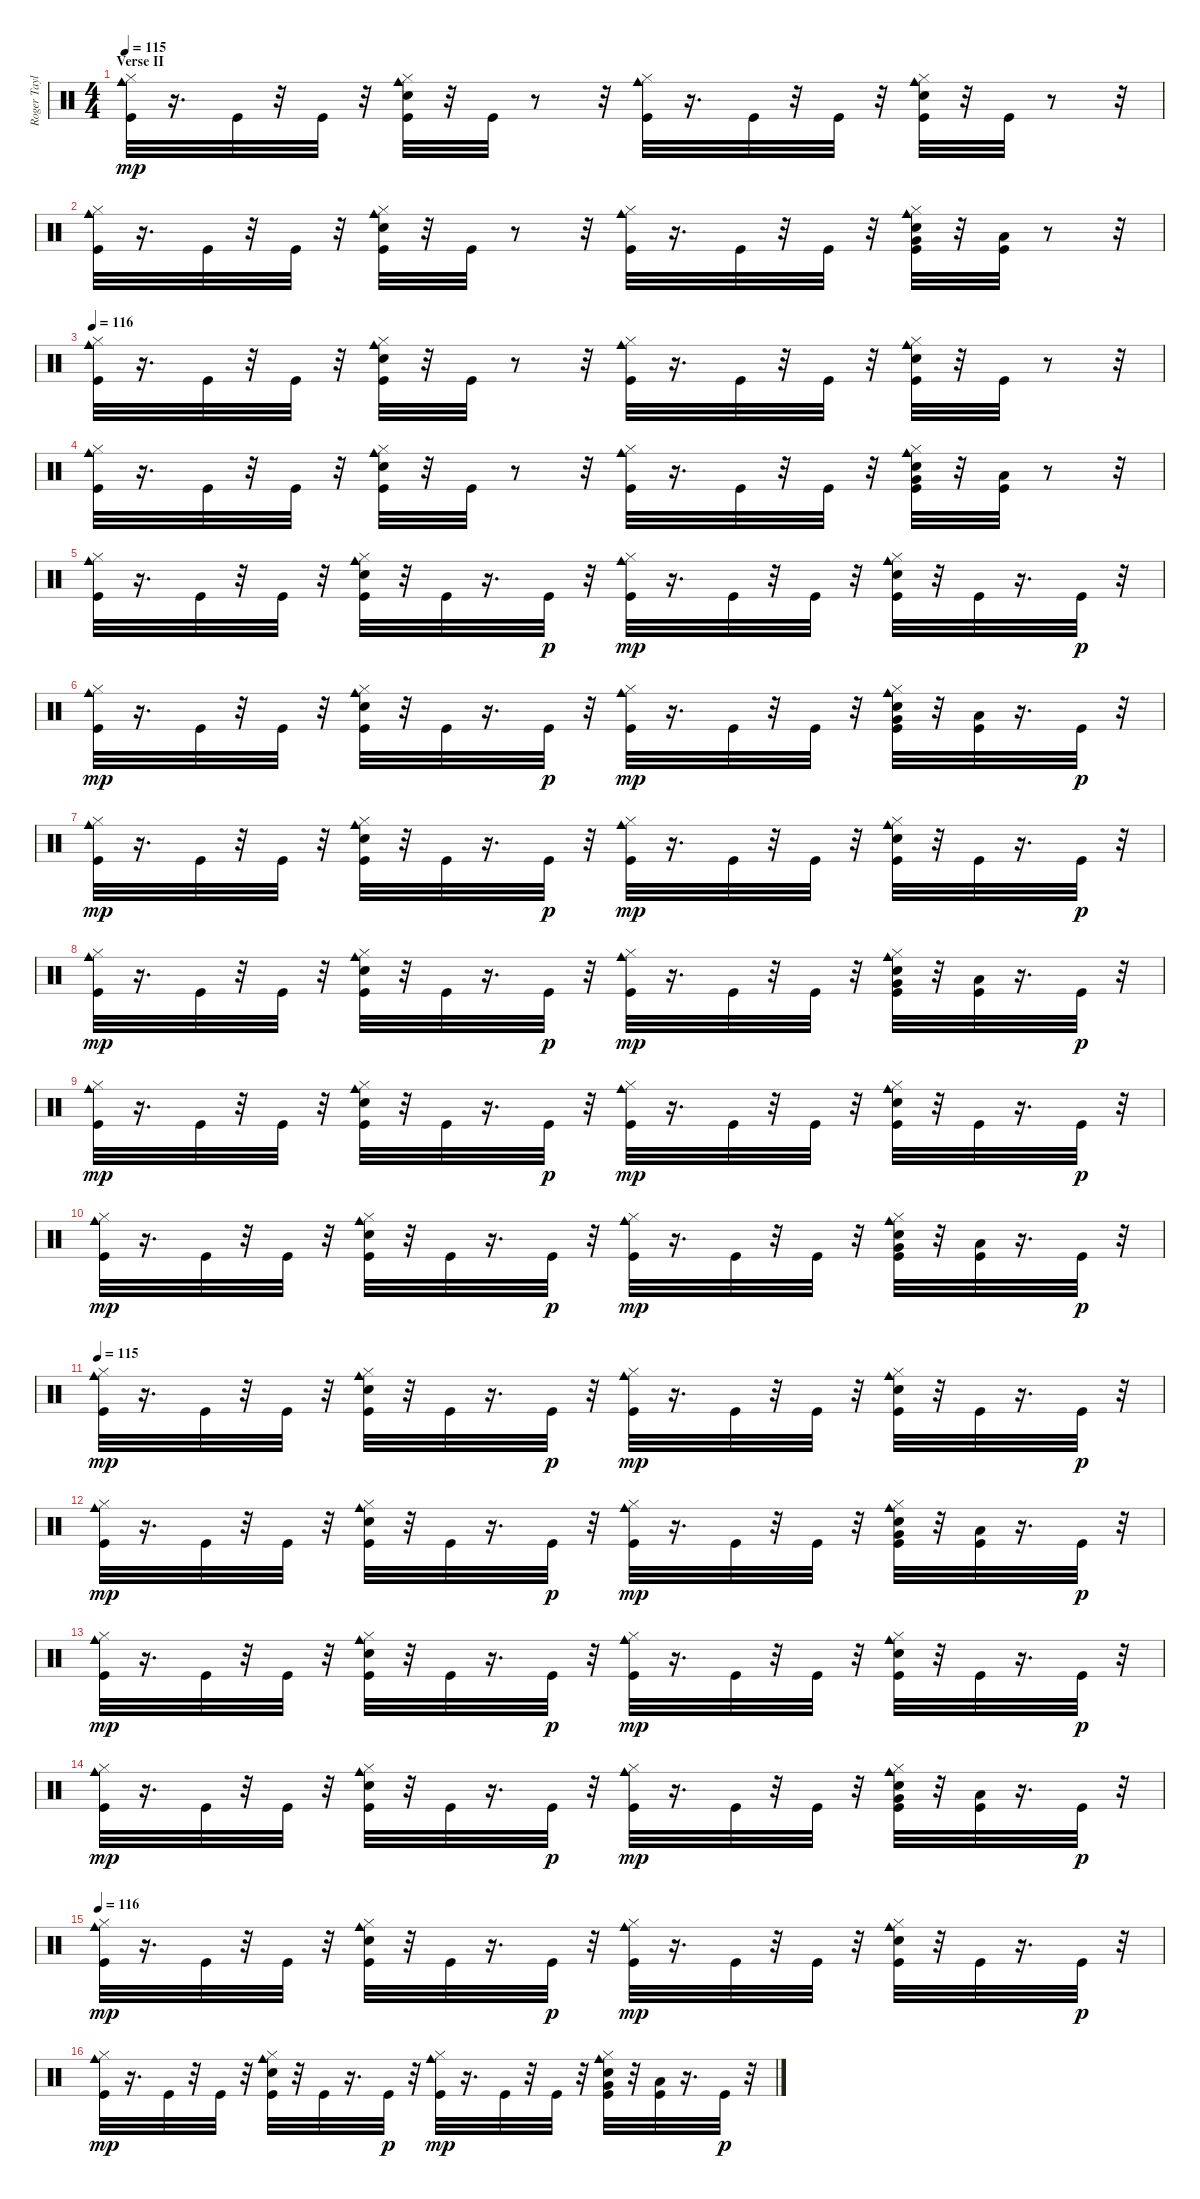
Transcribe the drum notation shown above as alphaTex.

\track ("Roger Taylor" "Roger Tayl") {instrument percussion}
\staff {score}
\articulation defaults
\ts (4 4)
\section ("" "Verse II")
\tempo 115
\clef neutral
\ks c
("Cowbell medium (hit)" "Hi-Hat (closed)" "Kick (hit)").32{dy mp} r.16{d} "Kick (hit)".32 r.32 "Kick (hit)".32 r.32 ("Hand Clap (hit)" "Cowbell medium (hit)" "Hi-Hat (closed)" "Kick (hit)").32 r.32 "Kick (hit)".32 r.8 r.32 ("Cowbell medium (hit)" "Hi-Hat (closed)" "Kick (hit)").32 r.16{d} "Kick (hit)".32 r.32 "Kick (hit)".32 r.32 ("Hand Clap (hit)" "Cowbell medium (hit)" "Hi-Hat (closed)" "Kick (hit)").32 r.32 "Kick (hit)".32 r.8 r.32 |
("Cowbell medium (hit)" "Hi-Hat (closed)" "Kick (hit)").32 r.16{d} "Kick (hit)".32 r.32 "Kick (hit)".32 r.32 ("Snare (hit)" "Cowbell medium (hit)" "Hi-Hat (closed)" "Kick (hit)").32 r.32 "Kick (hit)".32 r.8 r.32 ("Cowbell medium (hit)" "Hi-Hat (closed)" "Kick (hit)").32 r.16{d} "Kick (hit)".32 r.32 "Kick (hit)".32 r.32 ("Very Low Tom (hit)" "Snare (hit)" "Cowbell medium (hit)" "Hi-Hat (closed)" "Kick (hit)").32 r.32 ("Low Floor Tom (hit)" "Kick (hit)").32 r.8 r.32 |
\tempo 116
("Cowbell medium (hit)" "Hi-Hat (closed)" "Kick (hit)").32 r.16{d} "Kick (hit)".32 r.32 "Kick (hit)".32 r.32 ("Hand Clap (hit)" "Cowbell medium (hit)" "Hi-Hat (closed)" "Kick (hit)").32 r.32 "Kick (hit)".32 r.8 r.32 ("Cowbell medium (hit)" "Hi-Hat (closed)" "Kick (hit)").32 r.16{d} "Kick (hit)".32 r.32 "Kick (hit)".32 r.32 ("Hand Clap (hit)" "Cowbell medium (hit)" "Hi-Hat (closed)" "Kick (hit)").32 r.32 "Kick (hit)".32 r.8 r.32 |
("Cowbell medium (hit)" "Hi-Hat (closed)" "Kick (hit)").32 r.16{d} "Kick (hit)".32 r.32 "Kick (hit)".32 r.32 ("Snare (hit)" "Cowbell medium (hit)" "Hi-Hat (closed)" "Kick (hit)").32 r.32 "Kick (hit)".32 r.8 r.32 ("Cowbell medium (hit)" "Hi-Hat (closed)" "Kick (hit)").32 r.16{d} "Kick (hit)".32 r.32 "Kick (hit)".32 r.32 ("Very Low Tom (hit)" "Snare (hit)" "Cowbell medium (hit)" "Hi-Hat (closed)" "Kick (hit)").32 r.32 ("Low Floor Tom (hit)" "Kick (hit)").32 r.8 r.32 |
("Cowbell medium (hit)" "Hi-Hat (closed)" "Kick (hit)").32 r.16{d} "Kick (hit)".32 r.32 "Kick (hit)".32 r.32 ("Snare (hit)" "Cowbell medium (hit)" "Hi-Hat (closed)" "Kick (hit)").32 r.32 "Kick (hit)".32 r.16{d} "Kick (hit)".32{dy p} r.32 ("Cowbell medium (hit)" "Hi-Hat (closed)" "Kick (hit)").32{dy mp} r.16{d} "Kick (hit)".32 r.32 "Kick (hit)".32 r.32 ("Hand Clap (hit)" "Cowbell medium (hit)" "Hi-Hat (closed)" "Kick (hit)").32 r.32 "Kick (hit)".32 r.16{d} "Kick (hit)".32{dy p} r.32 |
("Cowbell medium (hit)" "Hi-Hat (closed)" "Kick (hit)").32{dy mp} r.16{d} "Kick (hit)".32 r.32 "Kick (hit)".32 r.32 ("Snare (hit)" "Cowbell medium (hit)" "Hi-Hat (closed)" "Kick (hit)").32 r.32 "Kick (hit)".32 r.16{d} "Kick (hit)".32{dy p} r.32 ("Cowbell medium (hit)" "Hi-Hat (closed)" "Kick (hit)").32{dy mp} r.16{d} "Kick (hit)".32 r.32 "Kick (hit)".32 r.32 ("Hand Clap (hit)" "Very Low Tom (hit)" "Cowbell medium (hit)" "Hi-Hat (closed)" "Kick (hit)").32 r.32 ("Low Floor Tom (hit)" "Kick (hit)").32 r.16{d} "Kick (hit)".32{dy p} r.32 |
("Cowbell medium (hit)" "Hi-Hat (closed)" "Kick (hit)").32{dy mp} r.16{d} "Kick (hit)".32 r.32 "Kick (hit)".32 r.32 ("Snare (hit)" "Cowbell medium (hit)" "Hi-Hat (closed)" "Kick (hit)").32 r.32 "Kick (hit)".32 r.16{d} "Kick (hit)".32{dy p} r.32 ("Cowbell medium (hit)" "Hi-Hat (closed)" "Kick (hit)").32{dy mp} r.16{d} "Kick (hit)".32 r.32 "Kick (hit)".32 r.32 ("Hand Clap (hit)" "Cowbell medium (hit)" "Hi-Hat (closed)" "Kick (hit)").32 r.32 "Kick (hit)".32 r.16{d} "Kick (hit)".32{dy p} r.32 |
("Cowbell medium (hit)" "Hi-Hat (closed)" "Kick (hit)").32{dy mp} r.16{d} "Kick (hit)".32 r.32 "Kick (hit)".32 r.32 ("Snare (hit)" "Cowbell medium (hit)" "Hi-Hat (closed)" "Kick (hit)").32 r.32 "Kick (hit)".32 r.16{d} "Kick (hit)".32{dy p} r.32 ("Cowbell medium (hit)" "Hi-Hat (closed)" "Kick (hit)").32{dy mp} r.16{d} "Kick (hit)".32 r.32 "Kick (hit)".32 r.32 ("Hand Clap (hit)" "Very Low Tom (hit)" "Cowbell medium (hit)" "Hi-Hat (closed)" "Kick (hit)").32 r.32 ("Low Floor Tom (hit)" "Kick (hit)").32 r.16{d} "Kick (hit)".32{dy p} r.32 |
("Cowbell medium (hit)" "Hi-Hat (closed)" "Kick (hit)").32{dy mp} r.16{d} "Kick (hit)".32 r.32 "Kick (hit)".32 r.32 ("Snare (hit)" "Cowbell medium (hit)" "Hi-Hat (closed)" "Kick (hit)").32 r.32 "Kick (hit)".32 r.16{d} "Kick (hit)".32{dy p} r.32 ("Cowbell medium (hit)" "Hi-Hat (closed)" "Kick (hit)").32{dy mp} r.16{d} "Kick (hit)".32 r.32 "Kick (hit)".32 r.32 ("Hand Clap (hit)" "Cowbell medium (hit)" "Hi-Hat (closed)" "Kick (hit)").32 r.32 "Kick (hit)".32 r.16{d} "Kick (hit)".32{dy p} r.32 |
("Cowbell medium (hit)" "Hi-Hat (closed)" "Kick (hit)").32{dy mp} r.16{d} "Kick (hit)".32 r.32 "Kick (hit)".32 r.32 ("Snare (hit)" "Cowbell medium (hit)" "Hi-Hat (closed)" "Kick (hit)").32 r.32 "Kick (hit)".32 r.16{d} "Kick (hit)".32{dy p} r.32 ("Cowbell medium (hit)" "Hi-Hat (closed)" "Kick (hit)").32{dy mp} r.16{d} "Kick (hit)".32 r.32 "Kick (hit)".32 r.32 ("Hand Clap (hit)" "Very Low Tom (hit)" "Cowbell medium (hit)" "Hi-Hat (closed)" "Kick (hit)").32 r.32 ("Low Floor Tom (hit)" "Kick (hit)").32 r.16{d} "Kick (hit)".32{dy p} r.32 |
\tempo 115
("Cowbell medium (hit)" "Hi-Hat (closed)" "Kick (hit)").32{dy mp} r.16{d} "Kick (hit)".32 r.32 "Kick (hit)".32 r.32 ("Snare (hit)" "Cowbell medium (hit)" "Hi-Hat (closed)" "Kick (hit)").32 r.32 "Kick (hit)".32 r.16{d} "Kick (hit)".32{dy p} r.32 ("Cowbell medium (hit)" "Hi-Hat (closed)" "Kick (hit)").32{dy mp} r.16{d} "Kick (hit)".32 r.32 "Kick (hit)".32 r.32 ("Snare (hit)" "Cowbell medium (hit)" "Hi-Hat (closed)" "Kick (hit)").32 r.32 "Kick (hit)".32 r.16{d} "Kick (hit)".32{dy p} r.32 |
("Cowbell medium (hit)" "Hi-Hat (closed)" "Kick (hit)").32{dy mp} r.16{d} "Kick (hit)".32 r.32 "Kick (hit)".32 r.32 ("Snare (hit)" "Cowbell medium (hit)" "Hi-Hat (closed)" "Kick (hit)").32 r.32 "Kick (hit)".32 r.16{d} "Kick (hit)".32{dy p} r.32 ("Cowbell medium (hit)" "Hi-Hat (closed)" "Kick (hit)").32{dy mp} r.16{d} "Kick (hit)".32 r.32 "Kick (hit)".32 r.32 ("Snare (hit)" "Very Low Tom (hit)" "Cowbell medium (hit)" "Hi-Hat (closed)" "Kick (hit)").32 r.32 ("Low Floor Tom (hit)" "Kick (hit)").32 r.16{d} "Kick (hit)".32{dy p} r.32 |
("Cowbell medium (hit)" "Hi-Hat (closed)" "Kick (hit)").32{dy mp} r.16{d} "Kick (hit)".32 r.32 "Kick (hit)".32 r.32 ("Snare (hit)" "Cowbell medium (hit)" "Hi-Hat (closed)" "Kick (hit)").32 r.32 "Kick (hit)".32 r.16{d} "Kick (hit)".32{dy p} r.32 ("Cowbell medium (hit)" "Hi-Hat (closed)" "Kick (hit)").32{dy mp} r.16{d} "Kick (hit)".32 r.32 "Kick (hit)".32 r.32 ("Snare (hit)" "Cowbell medium (hit)" "Hi-Hat (closed)" "Kick (hit)").32 r.32 "Kick (hit)".32 r.16{d} "Kick (hit)".32{dy p} r.32 |
("Cowbell medium (hit)" "Hi-Hat (closed)" "Kick (hit)").32{dy mp} r.16{d} "Kick (hit)".32 r.32 "Kick (hit)".32 r.32 ("Snare (hit)" "Cowbell medium (hit)" "Hi-Hat (closed)" "Kick (hit)").32 r.32 "Kick (hit)".32 r.16{d} "Kick (hit)".32{dy p} r.32 ("Cowbell medium (hit)" "Hi-Hat (closed)" "Kick (hit)").32{dy mp} r.16{d} "Kick (hit)".32 r.32 "Kick (hit)".32 r.32 ("Snare (hit)" "Very Low Tom (hit)" "Cowbell medium (hit)" "Hi-Hat (closed)" "Kick (hit)").32 r.32 ("Low Floor Tom (hit)" "Kick (hit)").32 r.16{d} "Kick (hit)".32{dy p} r.32 |
\tempo 116
("Cowbell medium (hit)" "Hi-Hat (closed)" "Kick (hit)").32{dy mp} r.16{d} "Kick (hit)".32 r.32 "Kick (hit)".32 r.32 ("Snare (hit)" "Cowbell medium (hit)" "Hi-Hat (closed)" "Kick (hit)").32 r.32 "Kick (hit)".32 r.16{d} "Kick (hit)".32{dy p} r.32 ("Cowbell medium (hit)" "Hi-Hat (closed)" "Kick (hit)").32{dy mp} r.16{d} "Kick (hit)".32 r.32 "Kick (hit)".32 r.32 ("Snare (hit)" "Cowbell medium (hit)" "Hi-Hat (closed)" "Kick (hit)").32 r.32 "Kick (hit)".32 r.16{d} "Kick (hit)".32{dy p} r.32 |
("Cowbell medium (hit)" "Hi-Hat (closed)" "Kick (hit)").32{dy mp} r.16{d} "Kick (hit)".32 r.32 "Kick (hit)".32 r.32 ("Snare (hit)" "Cowbell medium (hit)" "Hi-Hat (closed)" "Kick (hit)").32 r.32 "Kick (hit)".32 r.16{d} "Kick (hit)".32{dy p} r.32 ("Cowbell medium (hit)" "Hi-Hat (closed)" "Kick (hit)").32{dy mp} r.16{d} "Kick (hit)".32 r.32 "Kick (hit)".32 r.32 ("Snare (hit)" "Very Low Tom (hit)" "Cowbell medium (hit)" "Hi-Hat (closed)" "Kick (hit)").32 r.32 ("Low Floor Tom (hit)" "Kick (hit)").32 r.16{d} "Kick (hit)".32{dy p} r.32
